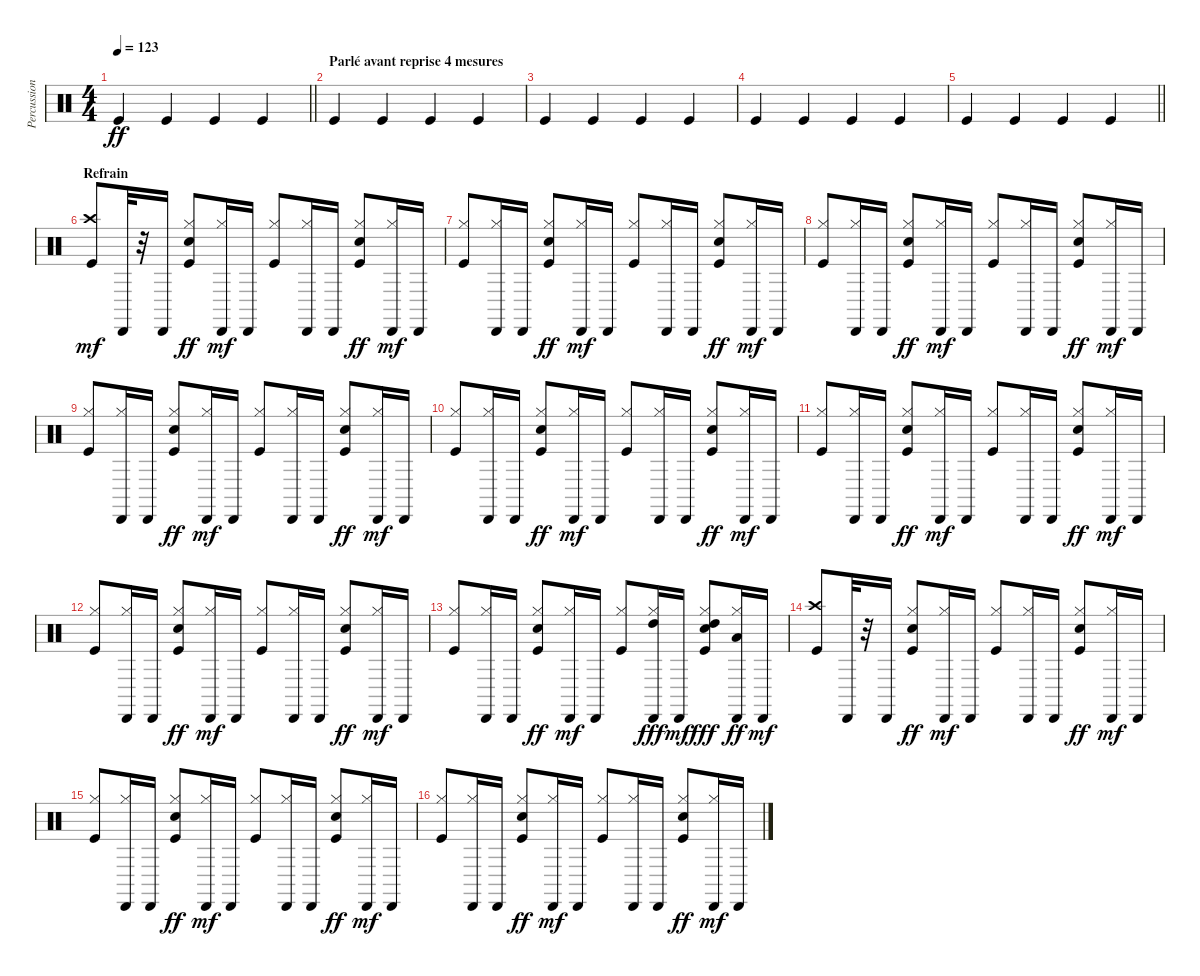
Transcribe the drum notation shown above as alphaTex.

\track ("Percussions" "Percussion") {instrument percussion}
\staff {score}
\articulation defaults
\ts (4 4)
\section ("" "")
\tempo 123
\clef neutral
\barLineRight lightlight
\ks c "Kick (hit)".4{dy ff} "Kick (hit)".4 "Kick (hit)".4 "Kick (hit)".4
|
\section ("" "Parlé avant reprise 4 mesures")
"Kick (hit)".4 "Kick (hit)".4 "Kick (hit)".4 "Kick (hit)".4 |
"Kick (hit)".4 "Kick (hit)".4 "Kick (hit)".4 "Kick (hit)".4 |
"Kick (hit)".4 "Kick (hit)".4 "Kick (hit)".4 "Kick (hit)".4 |
\barLineRight lightlight "Kick (hit)".4 "Kick (hit)".4 "Kick (hit)".4 "Kick (hit)".4
|
\section ("" "Refrain")
("Kick (hit)" "Crash high (hit)").8{dy mf} "Cabasa (hit)".32 r.32 "Cabasa (hit)".16 ("Kick (hit)" "Snare (hit) 2" "Hi-Hat (closed)").8{dy ff} ("Hi-Hat (closed)" "Cabasa (hit)").16{dy mf} "Cabasa (hit)".16 ("Kick (hit)" "Hi-Hat (closed)").8 ("Hi-Hat (closed)" "Cabasa (hit)").16 "Cabasa (hit)".16 ("Kick (hit)" "Snare (hit) 2" "Hi-Hat (closed)").8{dy ff} ("Hi-Hat (closed)" "Cabasa (hit)").16{dy mf} "Cabasa (hit)".16 |
("Kick (hit)" "Hi-Hat (closed)").8 ("Hi-Hat (closed)" "Cabasa (hit)").16 "Cabasa (hit)".16 ("Kick (hit)" "Snare (hit) 2" "Hi-Hat (closed)").8{dy ff} ("Hi-Hat (closed)" "Cabasa (hit)").16{dy mf} "Cabasa (hit)".16 ("Kick (hit)" "Hi-Hat (closed)").8 ("Hi-Hat (closed)" "Cabasa (hit)").16 "Cabasa (hit)".16 ("Kick (hit)" "Snare (hit) 2" "Hi-Hat (closed)").8{dy ff} ("Hi-Hat (closed)" "Cabasa (hit)").16{dy mf} "Cabasa (hit)".16 |
("Kick (hit)" "Hi-Hat (closed)").8 ("Hi-Hat (closed)" "Cabasa (hit)").16 "Cabasa (hit)".16 ("Kick (hit)" "Snare (hit) 2" "Hi-Hat (closed)").8{dy ff} ("Hi-Hat (closed)" "Cabasa (hit)").16{dy mf} "Cabasa (hit)".16 ("Kick (hit)" "Hi-Hat (closed)").8 ("Hi-Hat (closed)" "Cabasa (hit)").16 "Cabasa (hit)".16 ("Kick (hit)" "Snare (hit) 2" "Hi-Hat (closed)").8{dy ff} ("Hi-Hat (closed)" "Cabasa (hit)").16{dy mf} "Cabasa (hit)".16 |
("Kick (hit)" "Hi-Hat (closed)").8 ("Hi-Hat (closed)" "Cabasa (hit)").16 "Cabasa (hit)".16 ("Kick (hit)" "Snare (hit) 2" "Hi-Hat (closed)").8{dy ff} ("Hi-Hat (closed)" "Cabasa (hit)").16{dy mf} "Cabasa (hit)".16 ("Kick (hit)" "Hi-Hat (closed)").8 ("Hi-Hat (closed)" "Cabasa (hit)").16 "Cabasa (hit)".16 ("Kick (hit)" "Snare (hit) 2" "Hi-Hat (closed)").8{dy ff} ("Hi-Hat (closed)" "Cabasa (hit)").16{dy mf} "Cabasa (hit)".16 |
("Kick (hit)" "Hi-Hat (closed)").8 ("Hi-Hat (closed)" "Cabasa (hit)").16 "Cabasa (hit)".16 ("Kick (hit)" "Snare (hit) 2" "Hi-Hat (closed)").8{dy ff} ("Hi-Hat (closed)" "Cabasa (hit)").16{dy mf} "Cabasa (hit)".16 ("Kick (hit)" "Hi-Hat (closed)").8 ("Hi-Hat (closed)" "Cabasa (hit)").16 "Cabasa (hit)".16 ("Kick (hit)" "Snare (hit) 2" "Hi-Hat (closed)").8{dy ff} ("Hi-Hat (closed)" "Cabasa (hit)").16{dy mf} "Cabasa (hit)".16 |
("Kick (hit)" "Hi-Hat (closed)").8 ("Hi-Hat (closed)" "Cabasa (hit)").16 "Cabasa (hit)".16 ("Kick (hit)" "Snare (hit) 2" "Hi-Hat (closed)").8{dy ff} ("Hi-Hat (closed)" "Cabasa (hit)").16{dy mf} "Cabasa (hit)".16 ("Kick (hit)" "Hi-Hat (closed)").8 ("Hi-Hat (closed)" "Cabasa (hit)").16 "Cabasa (hit)".16 ("Kick (hit)" "Snare (hit) 2" "Hi-Hat (closed)").8{dy ff} ("Hi-Hat (closed)" "Cabasa (hit)").16{dy mf} "Cabasa (hit)".16 |
("Kick (hit)" "Hi-Hat (closed)").8 ("Hi-Hat (closed)" "Cabasa (hit)").16 "Cabasa (hit)".16 ("Kick (hit)" "Snare (hit) 2" "Hi-Hat (closed)").8{dy ff} ("Hi-Hat (closed)" "Cabasa (hit)").16{dy mf} "Cabasa (hit)".16 ("Kick (hit)" "Hi-Hat (closed)").8 ("Hi-Hat (closed)" "Cabasa (hit)").16 "Cabasa (hit)".16 ("Kick (hit)" "Snare (hit) 2" "Hi-Hat (closed)").8{dy ff} ("Hi-Hat (closed)" "Cabasa (hit)").16{dy mf} "Cabasa (hit)".16 |
("Kick (hit)" "Hi-Hat (closed)").8 ("Hi-Hat (closed)" "Cabasa (hit)").16 "Cabasa (hit)".16 ("Kick (hit)" "Snare (hit) 2" "Hi-Hat (closed)").8{dy ff} ("Hi-Hat (closed)" "Cabasa (hit)").16{dy mf} "Cabasa (hit)".16 ("Kick (hit)" "Hi-Hat (closed)").8 ("Hi-Hat (closed)" "Cabasa (hit)" "High Tom (hit)").16{dy fff} "Cabasa (hit)".16{dy mf} ("Kick (hit)" "Snare (hit) 2" "Hi-Hat (closed)" "High Tom (hit)").8{dy fff} ("Hi-Hat (closed)" "Cabasa (hit)" "Low Tom (hit)").16{dy ff} "Cabasa (hit)".16{dy mf} |
("Kick (hit)" "Crash high (hit)").8 "Cabasa (hit)".32 r.32 "Cabasa (hit)".16 ("Kick (hit)" "Snare (hit) 2" "Hi-Hat (closed)").8{dy ff} ("Hi-Hat (closed)" "Cabasa (hit)").16{dy mf} "Cabasa (hit)".16 ("Kick (hit)" "Hi-Hat (closed)").8 ("Hi-Hat (closed)" "Cabasa (hit)").16 "Cabasa (hit)".16 ("Kick (hit)" "Snare (hit) 2" "Hi-Hat (closed)").8{dy ff} ("Hi-Hat (closed)" "Cabasa (hit)").16{dy mf} "Cabasa (hit)".16 |
("Kick (hit)" "Hi-Hat (closed)").8 ("Hi-Hat (closed)" "Cabasa (hit)").16 "Cabasa (hit)".16 ("Kick (hit)" "Snare (hit) 2" "Hi-Hat (closed)").8{dy ff} ("Hi-Hat (closed)" "Cabasa (hit)").16{dy mf} "Cabasa (hit)".16 ("Kick (hit)" "Hi-Hat (closed)").8 ("Hi-Hat (closed)" "Cabasa (hit)").16 "Cabasa (hit)".16 ("Kick (hit)" "Snare (hit) 2" "Hi-Hat (closed)").8{dy ff} ("Hi-Hat (closed)" "Cabasa (hit)").16{dy mf} "Cabasa (hit)".16 |
("Kick (hit)" "Hi-Hat (closed)").8 ("Hi-Hat (closed)" "Cabasa (hit)").16 "Cabasa (hit)".16 ("Kick (hit)" "Snare (hit) 2" "Hi-Hat (closed)").8{dy ff} ("Hi-Hat (closed)" "Cabasa (hit)").16{dy mf} "Cabasa (hit)".16 ("Kick (hit)" "Hi-Hat (closed)").8 ("Hi-Hat (closed)" "Cabasa (hit)").16 "Cabasa (hit)".16 ("Kick (hit)" "Snare (hit) 2" "Hi-Hat (closed)").8{dy ff} ("Hi-Hat (closed)" "Cabasa (hit)").16{dy mf} "Cabasa (hit)".16
